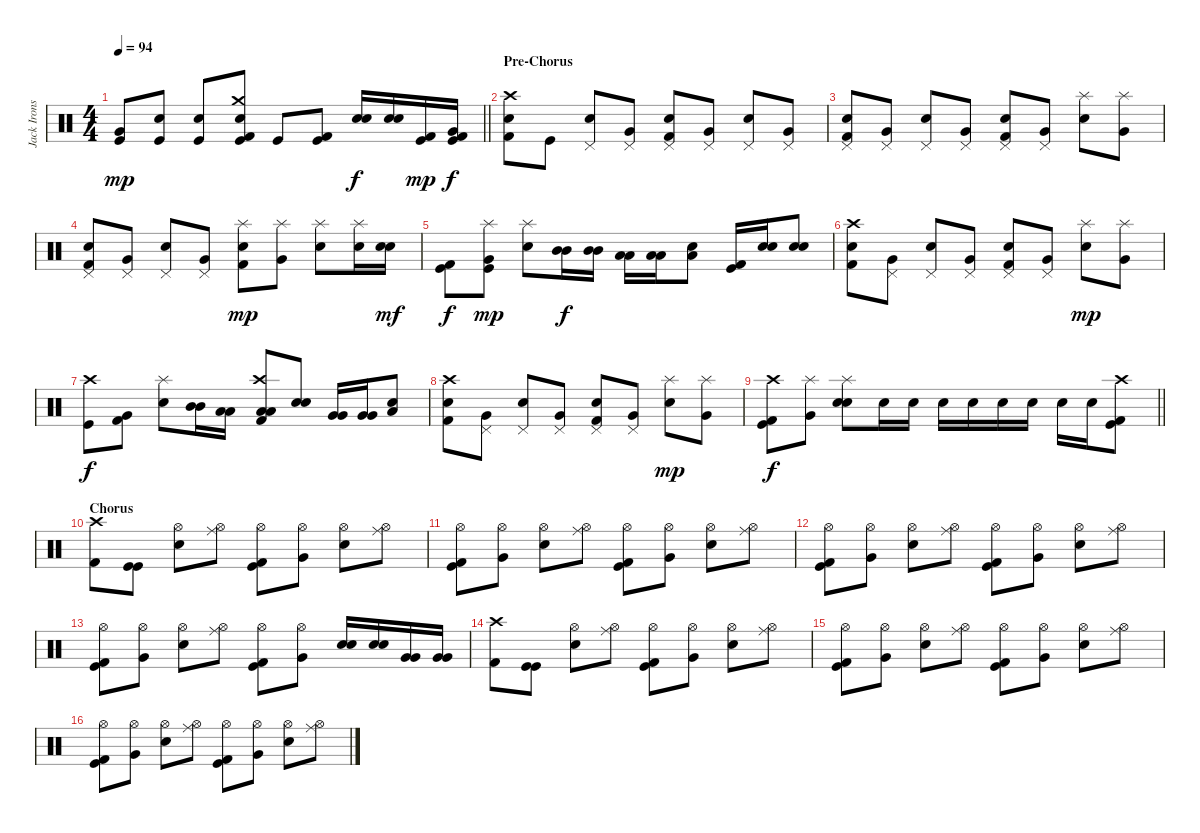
\track ("Jack Irons" "Jack Irons") {instrument percussion}
\staff {score}
\articulation defaults
\ts (4 4)
\tempo 94
\clef neutral
\barLineRight lightlight
\ks c
("Very Low Tom (hit)" "Kick (hit)").8{dy mp} ("Electric Snare (hit)" "Kick (hit)").8 ("Electric Snare (hit)" "Kick (hit)").8 ("Crash medium (hit)" "Electric Snare (hit)" "Kick (hit)" "Kick (hit) 2").8 "Kick (hit)".8 ("Kick (hit)" "Kick (hit) 2").8 ("Electric Snare (hit)" "Electric Snare (hit)").16{dy f} ("Electric Snare (hit)" "Electric Snare (hit)").16 ("Kick (hit)" "Kick (hit) 2").16{dy mp} ("Kick (hit)" "Very Low Tom (hit)" "Kick (hit) 2").16{dy f} |
\section ("" "Pre-Chorus")
("Crash high (hit)" "Electric Snare (hit)" "Kick (hit) 2").8 "Kick (hit)".8 ("Pedal Hi-Hat (hit)" "Electric Snare (hit)").8 ("Pedal Hi-Hat (hit)" "Very Low Tom (hit)").8 ("Pedal Hi-Hat (hit)" "Electric Snare (hit)" "Kick (hit) 2").8 ("Pedal Hi-Hat (hit)" "Very Low Tom (hit)").8 ("Pedal Hi-Hat (hit)" "Electric Snare (hit)").8 ("Pedal Hi-Hat (hit)" "Very Low Tom (hit)").8 |
("Pedal Hi-Hat (hit)" "Electric Snare (hit)" "Kick (hit) 2").8 ("Pedal Hi-Hat (hit)" "Very Low Tom (hit)").8 ("Pedal Hi-Hat (hit)" "Electric Snare (hit)").8 ("Pedal Hi-Hat (hit)" "Very Low Tom (hit)").8 ("Pedal Hi-Hat (hit)" "Electric Snare (hit)" "Kick (hit) 2").8 ("Pedal Hi-Hat (hit)" "Very Low Tom (hit)").8 ("Splash (hit)" "Electric Snare (hit)").8 ("Splash (hit)" "Very Low Tom (hit)").8 |
("Pedal Hi-Hat (hit)" "Electric Snare (hit)" "Kick (hit) 2").8 ("Pedal Hi-Hat (hit)" "Very Low Tom (hit)").8 ("Pedal Hi-Hat (hit)" "Electric Snare (hit)").8 ("Pedal Hi-Hat (hit)" "Very Low Tom (hit)").8 ("Splash (hit)" "Electric Snare (hit)" "Kick (hit) 2").8{dy mp} ("Splash (hit)" "Very Low Tom (hit)").8 ("Splash (hit)" "Electric Snare (hit)").8 ("Splash (hit)" "Electric Snare (hit)").16 ("Electric Snare (hit)" "Electric Snare (hit)").16{dy mf} |
("Kick (hit)" "Kick (hit) 2").8{dy f} ("Splash (hit)" "Kick (hit)" "Very Low Tom (hit)").8{dy mp} ("Splash (hit)" "Electric Snare (hit)").8 ("Mid Tom (hit)" "Mid Tom (hit)").16{dy f} ("Mid Tom (hit)" "Mid Tom (hit)").16 ("Low Tom (hit)" "Low Tom (hit)").16 ("Low Tom (hit)" "Low Tom (hit)").16 ("Electric Snare (hit)" "Low Tom (hit)").8 ("Kick (hit)" "Kick (hit) 2").16 ("Electric Snare (hit)" "Electric Snare (hit)").16 ("Electric Snare (hit)" "Electric Snare (hit)").8 |
("Crash high (hit)" "Electric Snare (hit)" "Kick (hit) 2").8 ("Pedal Hi-Hat (hit)" "Very Low Tom (hit)").8 ("Pedal Hi-Hat (hit)" "Electric Snare (hit)").8 ("Pedal Hi-Hat (hit)" "Very Low Tom (hit)").8 ("Pedal Hi-Hat (hit)" "Electric Snare (hit)" "Kick (hit) 2").8 ("Pedal Hi-Hat (hit)" "Very Low Tom (hit)").8 ("Splash (hit)" "Electric Snare (hit)").8{dy mp} ("Splash (hit)" "Very Low Tom (hit)").8 |
("Crash high (hit)" "Kick (hit)").8{dy f} ("Very Low Tom (hit)" "Kick (hit) 2").8 ("Splash (hit)" "Electric Snare (hit)").8 ("Mid Tom (hit)" "Mid Tom (hit)").16 ("Low Tom (hit)" "Low Tom (hit)").16 ("Crash high (hit)" "Low Tom (hit)" "Low Tom (hit)" "Kick (hit) 2").8 ("Electric Snare (hit)" "Electric Snare (hit)").8 ("Very Low Tom (hit)" "Very Low Tom (hit)").16 ("Very Low Tom (hit)" "Very Low Tom (hit)").16 ("Electric Snare (hit)" "Low Tom (hit)").8 |
("Crash high (hit)" "Electric Snare (hit)" "Kick (hit) 2").8 ("Pedal Hi-Hat (hit)" "Very Low Tom (hit)").8 ("Pedal Hi-Hat (hit)" "Electric Snare (hit)").8 ("Pedal Hi-Hat (hit)" "Very Low Tom (hit)").8 ("Pedal Hi-Hat (hit)" "Electric Snare (hit)" "Kick (hit) 2").8 ("Pedal Hi-Hat (hit)" "Very Low Tom (hit)").8 ("Splash (hit)" "Electric Snare (hit)").8{dy mp} ("Splash (hit)" "Very Low Tom (hit)").8 |
\barLineRight lightlight
("Crash high (hit)" "Kick (hit)" "Kick (hit) 2").8{dy f} ("Splash (hit)" "Very Low Tom (hit)").8 ("Splash (hit)" "Electric Snare (hit)" "Electric Snare (hit)").8 "Electric Snare (hit)".16 "Electric Snare (hit)".16 "Electric Snare (hit)".16 "Electric Snare (hit)".16 "Electric Snare (hit)".16 "Electric Snare (hit)".16 "Electric Snare (hit)".16 "Electric Snare (hit)".16 ("Crash high (hit)" "Kick (hit)" "Kick (hit) 2").8 |
\section ("" "Chorus")
("Crash high (hit)" "Kick (hit) 2").8 ("Kick (hit)" "Kick (hit)").8 ("Hi-Hat (open)" "Electric Snare (hit)").8 ("Hi-Hat (open)" "Ride (middle)").8 ("Hi-Hat (open)" "Kick (hit)" "Kick (hit) 2").8 ("Hi-Hat (open)" "Very Low Tom (hit)").8 ("Hi-Hat (open)" "Electric Snare (hit)").8 ("Hi-Hat (open)" "Ride (middle)").8 |
("Hi-Hat (open)" "Kick (hit)" "Kick (hit) 2").8 ("Hi-Hat (open)" "Very Low Tom (hit)").8 ("Hi-Hat (open)" "Electric Snare (hit)").8 ("Hi-Hat (open)" "Ride (middle)").8 ("Hi-Hat (open)" "Kick (hit)" "Kick (hit) 2").8 ("Hi-Hat (open)" "Very Low Tom (hit)").8 ("Hi-Hat (open)" "Electric Snare (hit)").8 ("Hi-Hat (open)" "Ride (middle)").8 |
("Hi-Hat (open)" "Kick (hit)" "Kick (hit) 2").8 ("Hi-Hat (open)" "Very Low Tom (hit)").8 ("Hi-Hat (open)" "Electric Snare (hit)").8 ("Hi-Hat (open)" "Ride (middle)").8 ("Hi-Hat (open)" "Kick (hit)" "Kick (hit) 2").8 ("Hi-Hat (open)" "Very Low Tom (hit)").8 ("Hi-Hat (open)" "Electric Snare (hit)").8 ("Hi-Hat (open)" "Ride (middle)").8 |
("Hi-Hat (open)" "Kick (hit)" "Kick (hit) 2").8 ("Hi-Hat (open)" "Very Low Tom (hit)").8 ("Hi-Hat (open)" "Electric Snare (hit)").8 ("Hi-Hat (open)" "Ride (middle)").8 ("Hi-Hat (open)" "Kick (hit)" "Kick (hit) 2").8 ("Hi-Hat (open)" "Very Low Tom (hit)").8 ("Electric Snare (hit)" "Electric Snare (hit)").16 ("Electric Snare (hit)" "Electric Snare (hit)").16 ("Very Low Tom (hit)" "Very Low Tom (hit)").16 ("Very Low Tom (hit)" "Very Low Tom (hit)").16 |
("Crash high (hit)" "Kick (hit) 2").8 ("Kick (hit)" "Kick (hit)").8 ("Hi-Hat (open)" "Electric Snare (hit)").8 ("Hi-Hat (open)" "Ride (middle)").8 ("Hi-Hat (open)" "Kick (hit)" "Kick (hit) 2").8 ("Hi-Hat (open)" "Very Low Tom (hit)").8 ("Hi-Hat (open)" "Electric Snare (hit)").8 ("Hi-Hat (open)" "Ride (middle)").8 |
("Hi-Hat (open)" "Kick (hit)" "Kick (hit) 2").8 ("Hi-Hat (open)" "Very Low Tom (hit)").8 ("Hi-Hat (open)" "Electric Snare (hit)").8 ("Hi-Hat (open)" "Ride (middle)").8 ("Hi-Hat (open)" "Kick (hit)" "Kick (hit) 2").8 ("Hi-Hat (open)" "Very Low Tom (hit)").8 ("Hi-Hat (open)" "Electric Snare (hit)").8 ("Hi-Hat (open)" "Ride (middle)").8 |
("Hi-Hat (open)" "Kick (hit)" "Kick (hit) 2").8 ("Hi-Hat (open)" "Very Low Tom (hit)").8 ("Hi-Hat (open)" "Electric Snare (hit)").8 ("Hi-Hat (open)" "Ride (middle)").8 ("Hi-Hat (open)" "Kick (hit)" "Kick (hit) 2").8 ("Hi-Hat (open)" "Very Low Tom (hit)").8 ("Hi-Hat (open)" "Electric Snare (hit)").8 ("Hi-Hat (open)" "Ride (middle)").8
